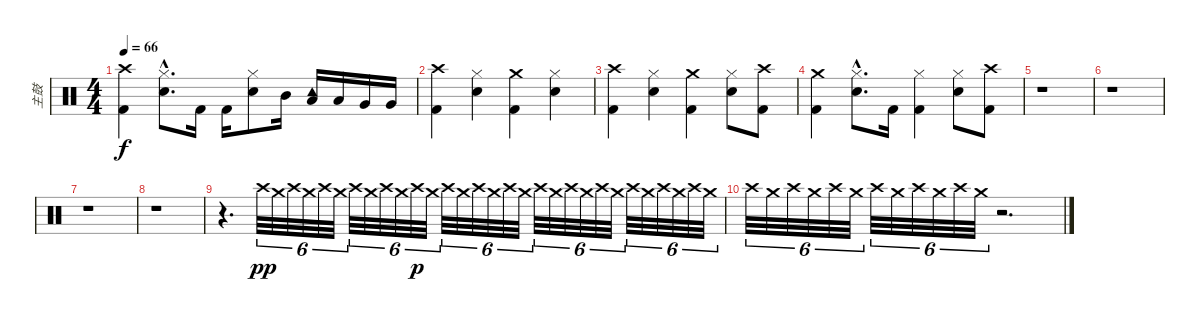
\track ("主鼓" "主鼓") {instrument percussion}
\staff {score}
\articulation defaults
\ts (4 4)
\tempo 66
\clef neutral
\ks c
("Crash high (hit)" "Kick (hit) 2").4{dy f} ("Hi-Hat (closed)"{hac} "Snare (hit) 2"{hac}).8{d} "Kick (hit) 2".16 "Kick (hit) 2".16 ("Hi-Hat (closed)" "Snare (hit) 2").8 "Mid Tom (hit)".16 ("Tambourine (hit)" "Low Tom (hit)").16 "Low Tom (hit)".16 "Very Low Tom (hit)".16 "Very Low Tom (hit)".16 |
("Crash high (hit)" "Kick (hit) 2").4 ("Hi-Hat (closed)" "Snare (hit) 2").4 ("Crash medium (hit)" "Kick (hit) 2").4 ("Hi-Hat (closed)" "Snare (hit) 2").4 |
("Crash high (hit)" "Kick (hit) 2").4 ("Hi-Hat (closed)" "Snare (hit) 2").4 ("Crash medium (hit)" "Kick (hit) 2").4 ("Hi-Hat (closed)" "Snare (hit) 2").8 ("Crash high (hit)" "Kick (hit) 2").8 |
("Crash medium (hit)" "Kick (hit) 2").4 ("Hi-Hat (closed)"{hac} "Snare (hit) 2"{hac}).8{d} "Kick (hit) 2".16 ("Hi-Hat (closed)" "Kick (hit) 2").4 ("Hi-Hat (closed)" "Snare (hit) 2").8 ("Crash high (hit)" "Kick (hit) 2").8 |
r.1 |
r.1 |
r.1 |
r.1 |
r.4{d} "Crash high (hit)".32{tu (6 4) dy pp volume 7} "Crash medium (hit)".32{tu (6 4)} "Crash high (hit)".32{tu (6 4)} "Crash medium (hit)".32{tu (6 4) volume 9} "Crash high (hit)".32{tu (6 4)} "Crash medium (hit)".32{tu (6 4)} "Crash high (hit)".32{tu (6 4) volume 11} "Crash medium (hit)".32{tu (6 4)} "Crash high (hit)".32{tu (6 4)} "Crash medium (hit)".32{tu (6 4) volume 0} "Crash high (hit)".32{tu (6 4) dy p} "Crash medium (hit)".32{tu (6 4)} "Crash high (hit)".32{tu (6 4)} "Crash medium (hit)".32{tu (6 4)} "Crash high (hit)".32{tu (6 4)} "Crash medium (hit)".32{tu (6 4)} "Crash high (hit)".32{tu (6 4)} "Crash medium (hit)".32{tu (6 4)} "Crash high (hit)".32{tu (6 4)} "Crash medium (hit)".32{tu (6 4)} "Crash high (hit)".32{tu (6 4)} "Crash medium (hit)".32{tu (6 4)} "Crash high (hit)".32{tu (6 4)} "Crash medium (hit)".32{tu (6 4)} "Crash high (hit)".32{tu (6 4)} "Crash medium (hit)".32{tu (6 4)} "Crash high (hit)".32{tu (6 4)} "Crash medium (hit)".32{tu (6 4)} "Crash high (hit)".32{tu (6 4)} "Crash medium (hit)".32{tu (6 4)} |
"Crash high (hit)".32{tu (6 4)} "Crash medium (hit)".32{tu (6 4)} "Crash high (hit)".32{tu (6 4)} "Crash medium (hit)".32{tu (6 4)} "Crash high (hit)".32{tu (6 4)} "Crash medium (hit)".32{tu (6 4)} "Crash high (hit)".32{tu (6 4)} "Crash medium (hit)".32{tu (6 4)} "Crash high (hit)".32{tu (6 4)} "Crash medium (hit)".32{tu (6 4)} "Crash high (hit)".32{tu (6 4)} "Crash medium (hit)".32{tu (6 4)} r.2{d}
